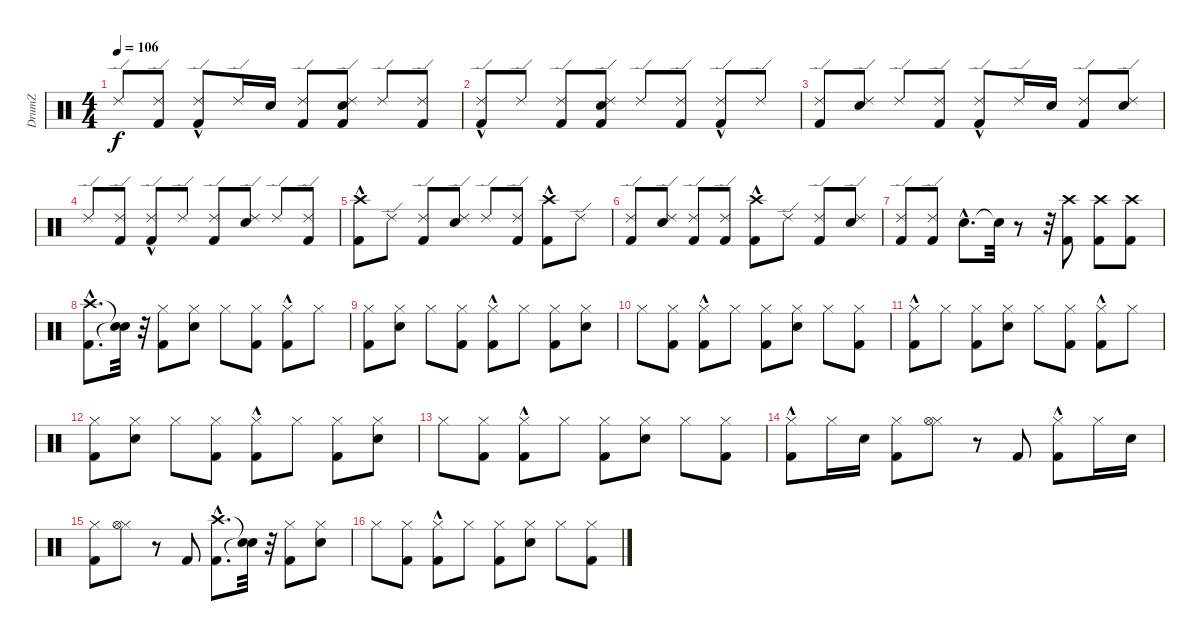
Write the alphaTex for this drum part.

\track ("DrumZ" "DrumZ") {instrument percussion}
\staff {score}
\articulation defaults
\ts (4 4)
\tempo 106
\clef neutral
\ks c "Ride (edge) 2".8{dy f}
("Kick (hit) 2" "Ride (edge) 2").8 ("Kick (hit) 2"{hac} "Ride (edge) 2").8 "Ride (edge) 2".16 "Electric Snare (hit)".16 ("Kick (hit) 2" "Ride (edge) 2").8 ("Kick (hit) 2" "Electric Snare (hit)" "Ride (edge) 2").8 "Ride (edge) 2".8 ("Kick (hit) 2" "Ride (edge) 2").8 |
("Kick (hit) 2"{hac} "Ride (edge) 2").8 "Ride (edge) 2".8 ("Kick (hit) 2" "Ride (edge) 2").8 ("Kick (hit) 2" "Electric Snare (hit)" "Ride (edge) 2").8 "Ride (edge) 2".8 ("Kick (hit) 2" "Ride (edge) 2").8 ("Kick (hit) 2"{hac} "Ride (edge) 2").8 "Ride (edge) 2".8 |
("Kick (hit) 2" "Ride (edge) 2").8 ("Electric Snare (hit)" "Ride (edge) 2").8 "Ride (edge) 2".8 ("Kick (hit) 2" "Ride (edge) 2").8 ("Kick (hit) 2"{hac} "Ride (edge) 2").8 "Ride (edge) 2".16 "Electric Snare (hit)".16 ("Kick (hit) 2" "Ride (edge) 2").8 ("Electric Snare (hit)" "Ride (edge) 2").8 |
"Ride (edge) 2".8 ("Kick (hit) 2" "Ride (edge) 2").8 ("Kick (hit) 2"{hac} "Ride (edge) 2").8 "Ride (edge) 2".8 ("Kick (hit) 2" "Ride (edge) 2").8 ("Electric Snare (hit)" "Ride (edge) 2").8 "Ride (edge) 2".8 ("Kick (hit) 2" "Ride (edge) 2").8 |
("Kick (hit) 2"{hac} "Crash high (hit)").8 "Ride (edge) 2".8 ("Kick (hit) 2" "Ride (edge) 2").8 ("Electric Snare (hit)" "Ride (edge) 2").8 "Ride (edge) 2".8 ("Kick (hit) 2" "Ride (edge) 2").8 ("Kick (hit) 2"{hac} "Crash high (hit)").8 "Ride (edge) 2".8 |
("Kick (hit) 2" "Ride (edge) 2").8 ("Electric Snare (hit)" "Ride (edge) 2").8 ("Kick (hit) 2" "Ride (edge) 2").8 ("Kick (hit) 2" "Ride (edge) 2").8 ("Kick (hit) 2"{hac} "Crash high (hit)").8 "Ride (edge) 2".8 ("Kick (hit) 2" "Ride (edge) 2").8 ("Electric Snare (hit)" "Ride (edge) 2").8 |
("Kick (hit) 2" "Ride (edge) 2").8 ("Kick (hit) 2" "Ride (edge) 2").8 "Electric Snare (hit)"{hac}.8{d} "Snare (hit)"{t}.32 r.8 r.32 ("Kick (hit) 2" "Crash high (hit)").8 ("Kick (hit) 2" "Crash high (hit)").8 ("Kick (hit) 2" "Crash high (hit)").8 |
("Crash high (hit)"{hac} "Kick (hit) 2"{hac}).8{d} ("Snare (hit)"{t} "Snare (hit)"{t}).32 r.32 ("Hi-Hat (closed)" "Kick (hit) 2").8 ("Hi-Hat (closed)" "Electric Snare (hit)").8 "Hi-Hat (closed)".8 ("Hi-Hat (closed)" "Kick (hit) 2").8 ("Hi-Hat (closed)" "Kick (hit) 2"{hac}).8 "Hi-Hat (closed)".8 |
("Hi-Hat (closed)" "Kick (hit) 2").8 ("Hi-Hat (closed)" "Electric Snare (hit)").8 "Hi-Hat (closed)".8 ("Hi-Hat (closed)" "Kick (hit) 2").8 ("Hi-Hat (closed)" "Kick (hit) 2"{hac}).8 "Hi-Hat (closed)".8 ("Hi-Hat (closed)" "Kick (hit) 2").8 ("Hi-Hat (closed)" "Electric Snare (hit)").8 |
"Hi-Hat (closed)".8 ("Hi-Hat (closed)" "Kick (hit) 2").8 ("Hi-Hat (closed)" "Kick (hit) 2"{hac}).8 "Hi-Hat (closed)".8 ("Hi-Hat (closed)" "Kick (hit) 2").8 ("Hi-Hat (closed)" "Electric Snare (hit)").8 "Hi-Hat (closed)".8 ("Hi-Hat (closed)" "Kick (hit) 2").8 |
("Hi-Hat (closed)" "Kick (hit) 2"{hac}).8 "Hi-Hat (closed)".8 ("Hi-Hat (closed)" "Kick (hit) 2").8 ("Hi-Hat (closed)" "Electric Snare (hit)").8 "Hi-Hat (closed)".8 ("Hi-Hat (closed)" "Kick (hit) 2").8 ("Hi-Hat (closed)" "Kick (hit) 2"{hac}).8 "Hi-Hat (closed)".8 |
("Hi-Hat (closed)" "Kick (hit) 2").8 ("Hi-Hat (closed)" "Electric Snare (hit)").8 "Hi-Hat (closed)".8 ("Hi-Hat (closed)" "Kick (hit) 2").8 ("Hi-Hat (closed)" "Kick (hit) 2"{hac}).8 "Hi-Hat (closed)".8 ("Hi-Hat (closed)" "Kick (hit) 2").8 ("Hi-Hat (closed)" "Electric Snare (hit)").8 |
"Hi-Hat (closed)".8 ("Hi-Hat (closed)" "Kick (hit) 2").8 ("Hi-Hat (closed)" "Kick (hit) 2"{hac}).8 "Hi-Hat (closed)".8 ("Hi-Hat (closed)" "Kick (hit) 2").8 ("Hi-Hat (closed)" "Electric Snare (hit)").8 "Hi-Hat (closed)".8 ("Hi-Hat (closed)" "Kick (hit) 2").8 |
("Kick (hit) 2"{hac} "Hi-Hat (closed)").8 "Hi-Hat (closed)".16 "Electric Snare (hit)".16 ("Kick (hit) 2" "Hi-Hat (closed)").8 ("Hi-Hat (closed)" "Hi-Hat (open)").8 r.8 "Kick (hit) 2".8 ("Kick (hit) 2"{hac} "Hi-Hat (closed)").8 "Hi-Hat (closed)".16 "Electric Snare (hit)".16 |
("Kick (hit) 2" "Hi-Hat (closed)").8 ("Hi-Hat (closed)" "Hi-Hat (open)").8 r.8 "Kick (hit) 2".8 ("Crash high (hit)"{hac} "Kick (hit) 2"{hac}).8{d} ("Snare (hit)"{t} "Snare (hit)"{t}).32 r.32 ("Hi-Hat (closed)" "Kick (hit) 2").8 ("Hi-Hat (closed)" "Electric Snare (hit)").8 |
"Hi-Hat (closed)".8 ("Hi-Hat (closed)" "Kick (hit) 2").8 ("Hi-Hat (closed)" "Kick (hit) 2"{hac}).8 "Hi-Hat (closed)".8 ("Hi-Hat (closed)" "Kick (hit) 2").8 ("Hi-Hat (closed)" "Electric Snare (hit)").8 "Hi-Hat (closed)".8 ("Hi-Hat (closed)" "Kick (hit) 2").8
